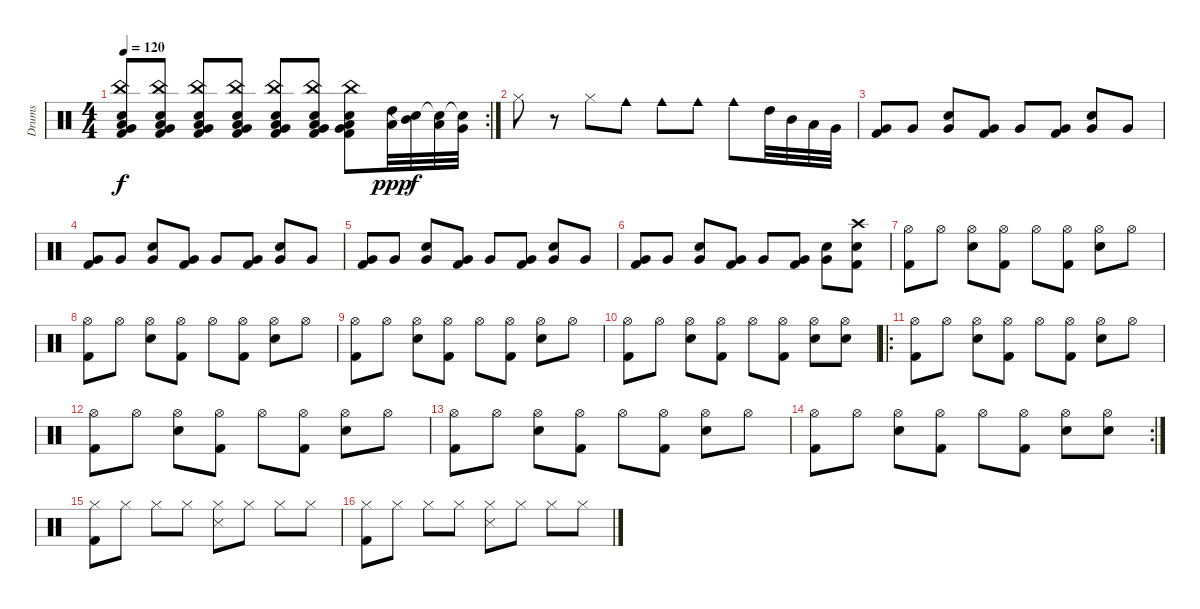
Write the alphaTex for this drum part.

\track ("Drums" "Drums") {instrument percussion}
\staff {score}
\articulation defaults
\rc 2
\ts (4 4)
\tempo 120
\clef neutral
\ks c
("Very Low Tom (hit)" "Low Floor Tom (hit)" "China (hit)" "Kick (hit) 2" "Electric Snare (hit)").8{dy f} ("Very Low Tom (hit)" "Low Floor Tom (hit)" "China (hit)" "Kick (hit) 2" "Electric Snare (hit)").8 ("Very Low Tom (hit)" "Low Floor Tom (hit)" "China (hit)" "Kick (hit) 2" "Electric Snare (hit)").8 ("Very Low Tom (hit)" "Low Floor Tom (hit)" "China (hit)" "Kick (hit) 2" "Electric Snare (hit)").8 ("Very Low Tom (hit)" "Low Floor Tom (hit)" "China (hit)" "Kick (hit) 2" "Electric Snare (hit)").8 ("Very Low Tom (hit)" "Low Floor Tom (hit)" "China (hit)" "Kick (hit) 2" "Electric Snare (hit)").8 ("Very Low Tom (hit)" "Low Floor Tom (hit)" "China (hit)" "Kick (hit) 2" "Electric Snare (hit)").8 ("Low Floor Tom (hit)" "High Tom (hit)").32{dy ppp} ("Snare (hit)"{t} "Mid Tom (hit)").32{dy f} ("Snare (hit)"{t} "Low Tom (hit)").32 ("Snare (hit)"{t} "Very Low Tom (hit)").32 |
"Hi-Hat (closed)".8 r.8 "Hi-Hat (closed)".8 "Cowbell medium (hit)".8 "Cowbell medium (hit)".8 "Cowbell medium (hit)".8 "Cowbell medium (hit)".8 "High Tom (hit)".32 "Mid Tom (hit)".32 "Low Tom (hit)".32 "Very Low Tom (hit)".32 |
("Kick (hit) 2" "Very Low Tom (hit)").8 "Very Low Tom (hit)".8 ("Electric Snare (hit)" "Very Low Tom (hit)").8 ("Kick (hit) 2" "Very Low Tom (hit)").8 "Very Low Tom (hit)".8 ("Kick (hit) 2" "Very Low Tom (hit)").8 ("Electric Snare (hit)" "Very Low Tom (hit)").8 "Very Low Tom (hit)".8 |
("Kick (hit) 2" "Very Low Tom (hit)").8 "Very Low Tom (hit)".8 ("Electric Snare (hit)" "Very Low Tom (hit)").8 ("Kick (hit) 2" "Very Low Tom (hit)").8 "Very Low Tom (hit)".8 ("Kick (hit) 2" "Very Low Tom (hit)").8 ("Electric Snare (hit)" "Very Low Tom (hit)").8 "Very Low Tom (hit)".8 |
("Kick (hit) 2" "Very Low Tom (hit)").8 "Very Low Tom (hit)".8 ("Electric Snare (hit)" "Very Low Tom (hit)").8 ("Kick (hit) 2" "Very Low Tom (hit)").8 "Very Low Tom (hit)".8 ("Kick (hit) 2" "Very Low Tom (hit)").8 ("Electric Snare (hit)" "Very Low Tom (hit)").8 "Very Low Tom (hit)".8 |
("Kick (hit) 2" "Very Low Tom (hit)").8 "Very Low Tom (hit)".8 ("Electric Snare (hit)" "Very Low Tom (hit)").8 ("Kick (hit) 2" "Very Low Tom (hit)").8 "Very Low Tom (hit)".8 ("Kick (hit) 2" "Very Low Tom (hit)").8 ("Electric Snare (hit)" "Very Low Tom (hit)").8 ("Crash high (hit)" "Electric Snare (hit)" "Kick (hit) 2").8 |
("Kick (hit) 2" "Hi-Hat (open)").8 "Hi-Hat (open)".8 ("Electric Snare (hit)" "Hi-Hat (open)").8 ("Kick (hit) 2" "Hi-Hat (open)").8 "Hi-Hat (open)".8 ("Kick (hit) 2" "Hi-Hat (open)").8 ("Electric Snare (hit)" "Hi-Hat (open)").8 "Hi-Hat (open)".8 |
("Kick (hit) 2" "Hi-Hat (open)").8 "Hi-Hat (open)".8 ("Electric Snare (hit)" "Hi-Hat (open)").8 ("Kick (hit) 2" "Hi-Hat (open)").8 "Hi-Hat (open)".8 ("Kick (hit) 2" "Hi-Hat (open)").8 ("Electric Snare (hit)" "Hi-Hat (open)").8 "Hi-Hat (open)".8 |
("Kick (hit) 2" "Hi-Hat (open)").8 "Hi-Hat (open)".8 ("Electric Snare (hit)" "Hi-Hat (open)").8 ("Kick (hit) 2" "Hi-Hat (open)").8 "Hi-Hat (open)".8 ("Kick (hit) 2" "Hi-Hat (open)").8 ("Electric Snare (hit)" "Hi-Hat (open)").8 "Hi-Hat (open)".8 |
("Kick (hit) 2" "Hi-Hat (open)").8 "Hi-Hat (open)".8 ("Electric Snare (hit)" "Hi-Hat (open)").8 ("Kick (hit) 2" "Hi-Hat (open)").8 "Hi-Hat (open)".8 ("Kick (hit) 2" "Hi-Hat (open)").8 ("Electric Snare (hit)" "Hi-Hat (open)").8 ("Electric Snare (hit)" "Hi-Hat (open)").8 |
\ro
("Kick (hit) 2" "Hi-Hat (open)").8 "Hi-Hat (open)".8 ("Electric Snare (hit)" "Hi-Hat (open)").8 ("Kick (hit) 2" "Hi-Hat (open)").8 "Hi-Hat (open)".8 ("Kick (hit) 2" "Hi-Hat (open)").8 ("Electric Snare (hit)" "Hi-Hat (open)").8 "Hi-Hat (open)".8 |
("Kick (hit) 2" "Hi-Hat (open)").8 "Hi-Hat (open)".8 ("Electric Snare (hit)" "Hi-Hat (open)").8 ("Kick (hit) 2" "Hi-Hat (open)").8 "Hi-Hat (open)".8 ("Kick (hit) 2" "Hi-Hat (open)").8 ("Electric Snare (hit)" "Hi-Hat (open)").8 "Hi-Hat (open)".8 |
("Kick (hit) 2" "Hi-Hat (open)").8 "Hi-Hat (open)".8 ("Electric Snare (hit)" "Hi-Hat (open)").8 ("Kick (hit) 2" "Hi-Hat (open)").8 "Hi-Hat (open)".8 ("Kick (hit) 2" "Hi-Hat (open)").8 ("Electric Snare (hit)" "Hi-Hat (open)").8 "Hi-Hat (open)".8 |
\rc 2
("Kick (hit) 2" "Hi-Hat (open)").8 "Hi-Hat (open)".8 ("Electric Snare (hit)" "Hi-Hat (open)").8 ("Kick (hit) 2" "Hi-Hat (open)").8 "Hi-Hat (open)".8 ("Kick (hit) 2" "Hi-Hat (open)").8 ("Electric Snare (hit)" "Hi-Hat (open)").8 ("Electric Snare (hit)" "Hi-Hat (open)").8 |
("Hi-Hat (closed)" "Kick (hit) 2").8 "Hi-Hat (closed)".8 "Hi-Hat (closed)".8 "Hi-Hat (closed)".8 ("Hi-Hat (closed)" "Snare (side stick) 3").8 "Hi-Hat (closed)".8 "Hi-Hat (closed)".8 "Hi-Hat (closed)".8 |
("Hi-Hat (closed)" "Kick (hit) 2").8 "Hi-Hat (closed)".8 "Hi-Hat (closed)".8 "Hi-Hat (closed)".8 ("Hi-Hat (closed)" "Snare (side stick) 3").8 "Hi-Hat (closed)".8 "Hi-Hat (closed)".8 "Hi-Hat (closed)".8
